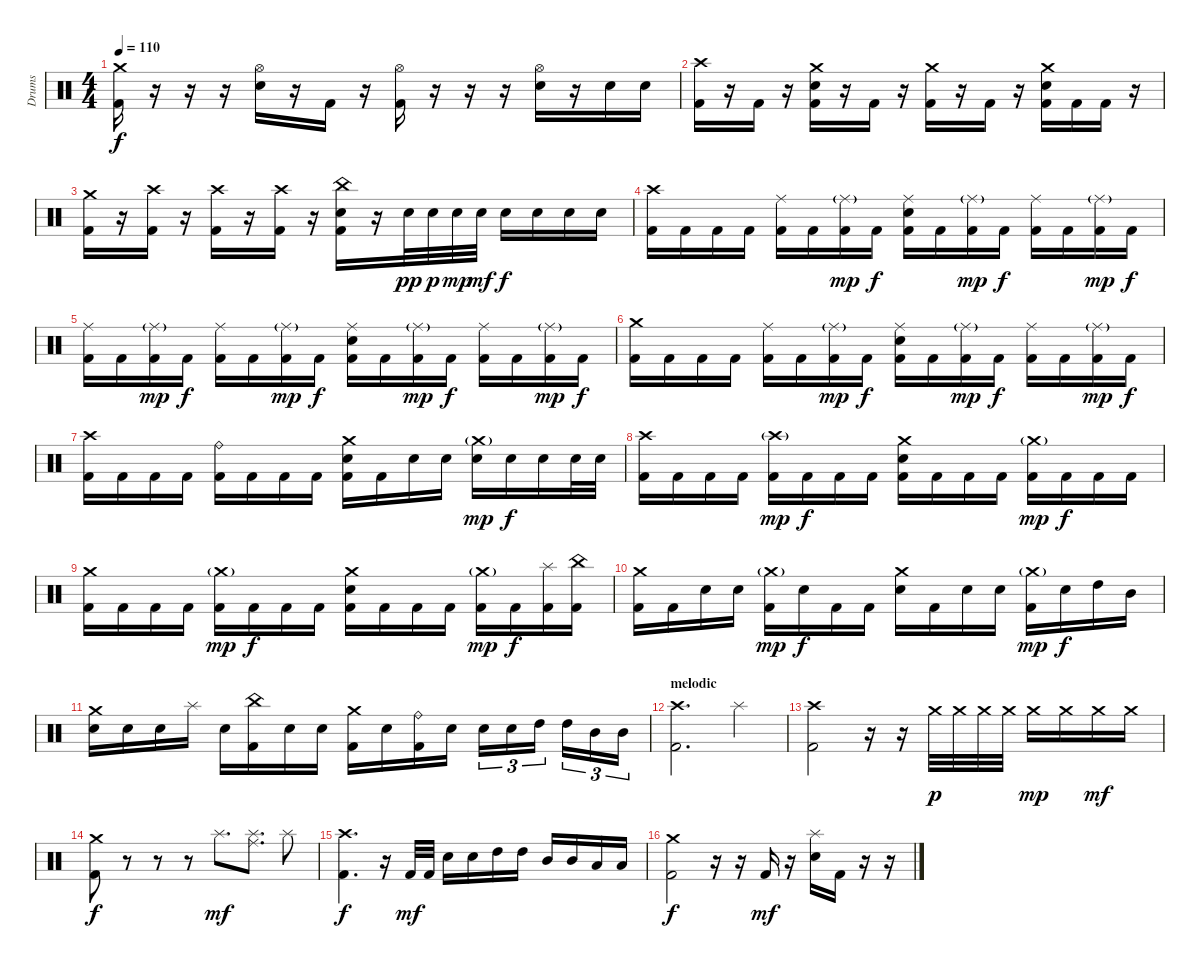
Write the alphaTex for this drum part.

\track ("Drums" "Drums") {instrument percussion}
\staff {score}
\articulation defaults
\ts (4 4)
\tempo 110
\clef neutral
\ks c
("Crash medium (hit)" "Kick (hit) 2").16{dy f} r.16 r.16 r.16 ("Hi-Hat (open)" "Electric Snare (hit)").16 r.16 "Kick (hit) 2".16 r.16 ("Hi-Hat (open)" "Kick (hit) 2").16 r.16 r.16 r.16 ("Hi-Hat (open)" "Electric Snare (hit)").16 r.16 "Electric Snare (hit)".16 "Electric Snare (hit)".16 |
("Crash high (hit)" "Kick (hit) 2").16 r.16 "Kick (hit) 2".16 r.16 ("Crash medium (hit)" "Electric Snare (hit)" "Kick (hit) 2").16 r.16 "Kick (hit) 2".16 r.16 ("Crash medium (hit)" "Kick (hit) 2").16 r.16 "Kick (hit) 2".16 r.16 ("Crash medium (hit)" "Electric Snare (hit)" "Kick (hit) 2").16 "Kick (hit) 2".16 "Kick (hit) 2".16 r.16 |
("Crash medium (hit)" "Kick (hit) 2").16 r.16 ("Crash high (hit)" "Kick (hit) 2").16 r.16 ("Crash high (hit)" "Kick (hit) 2").16 r.16 ("Crash high (hit)" "Kick (hit) 2").16 r.16 ("China (hit)" "Electric Snare (hit)" "Kick (hit) 2").16 r.16 "Electric Snare (hit)".32{dy pp} "Electric Snare (hit)".32{dy p} "Electric Snare (hit)".32{dy mp} "Electric Snare (hit)".32{dy mf} "Electric Snare (hit)".16{dy f} "Electric Snare (hit)".16 "Electric Snare (hit)".16 "Electric Snare (hit)".16 |
("Crash high (hit)" "Kick (hit) 2").16 "Kick (hit) 2".16 "Kick (hit) 2".16 "Kick (hit) 2".16 ("Ride (middle)" "Kick (hit) 2").16 "Kick (hit) 2".16 ("Ride (middle)"{g} "Kick (hit) 2").16{dy mp} "Kick (hit) 2".16{dy f} ("Ride (middle)" "Electric Snare (hit)" "Kick (hit) 2").16 "Kick (hit) 2".16 ("Ride (middle)"{g} "Kick (hit) 2").16{dy mp} "Kick (hit) 2".16{dy f} ("Ride (middle)" "Kick (hit) 2").16 "Kick (hit) 2".16 ("Ride (middle)"{g} "Kick (hit) 2").16{dy mp} "Kick (hit) 2".16{dy f} |
("Ride (middle)" "Kick (hit) 2").16 "Kick (hit) 2".16 ("Ride (middle)"{g} "Kick (hit) 2").16{dy mp} "Kick (hit) 2".16{dy f} ("Ride (middle)" "Kick (hit) 2").16 "Kick (hit) 2".16 ("Ride (middle)"{g} "Kick (hit) 2").16{dy mp} "Kick (hit) 2".16{dy f} ("Ride (middle)" "Electric Snare (hit)" "Kick (hit) 2").16 "Kick (hit) 2".16 ("Ride (middle)"{g} "Kick (hit) 2").16{dy mp} "Kick (hit) 2".16{dy f} ("Ride (middle)" "Kick (hit) 2").16 "Kick (hit) 2".16 ("Ride (middle)"{g} "Kick (hit) 2").16{dy mp} "Kick (hit) 2".16{dy f} |
("Crash medium (hit)" "Kick (hit) 2").16 "Kick (hit) 2".16 "Kick (hit) 2".16 "Kick (hit) 2".16 ("Ride (middle)" "Kick (hit) 2").16 "Kick (hit) 2".16 ("Ride (middle)"{g} "Kick (hit) 2").16{dy mp} "Kick (hit) 2".16{dy f} ("Ride (middle)" "Electric Snare (hit)" "Kick (hit) 2").16 "Kick (hit) 2".16 ("Ride (middle)"{g} "Kick (hit) 2").16{dy mp} "Kick (hit) 2".16{dy f} ("Ride (middle)" "Kick (hit) 2").16 "Kick (hit) 2".16 ("Ride (middle)"{g} "Kick (hit) 2").16{dy mp} "Kick (hit) 2".16{dy f} |
("Crash high (hit)" "Kick (hit) 2").16 "Kick (hit) 2".16 "Kick (hit) 2".16 "Kick (hit) 2".16 ("Ride (bell)" "Kick (hit) 2").16 "Kick (hit) 2".16 "Kick (hit) 2".16 "Kick (hit) 2".16 ("Crash medium (hit)" "Electric Snare (hit)" "Kick (hit) 2").16 "Kick (hit) 2".16 "Electric Snare (hit)".16 "Electric Snare (hit)".16 ("Crash medium (hit)"{g} "Electric Snare (hit)").16{dy mp} "Electric Snare (hit)".16{dy f} "Electric Snare (hit)".16 "Electric Snare (hit)".32 "Electric Snare (hit)".32 |
("Crash high (hit)" "Kick (hit) 2").16 "Kick (hit) 2".16 "Kick (hit) 2".16 "Kick (hit) 2".16 ("Crash high (hit)"{g} "Kick (hit) 2").16{dy mp} "Kick (hit) 2".16{dy f} "Kick (hit) 2".16 "Kick (hit) 2".16 ("Crash medium (hit)" "Electric Snare (hit)" "Kick (hit) 2").16 "Kick (hit) 2".16 "Kick (hit) 2".16 "Kick (hit) 2".16 ("Crash medium (hit)"{g} "Kick (hit) 2").16{dy mp} "Kick (hit) 2".16{dy f} "Kick (hit) 2".16 "Kick (hit) 2".16 |
("Crash medium (hit)" "Kick (hit) 2").16 "Kick (hit) 2".16 "Kick (hit) 2".16 "Kick (hit) 2".16 ("Crash medium (hit)"{g} "Kick (hit) 2").16{dy mp} "Kick (hit) 2".16{dy f} "Kick (hit) 2".16 "Kick (hit) 2".16 ("Crash medium (hit)" "Electric Snare (hit)" "Kick (hit) 2").16 "Kick (hit) 2".16 "Kick (hit) 2".16 "Kick (hit) 2".16 ("Crash medium (hit)"{g} "Kick (hit) 2").16{dy mp} "Kick (hit) 2".16{dy f} ("Splash (hit)" "Kick (hit) 2").16 ("China (hit)" "Kick (hit) 2").16 |
("Crash medium (hit)" "Kick (hit) 2").16 "Kick (hit) 2".16 "Electric Snare (hit)".16 "Electric Snare (hit)".16 ("Crash medium (hit)"{g} "Kick (hit) 2").16{dy mp} "Electric Snare (hit)".16{dy f} "Kick (hit) 2".16 "Kick (hit) 2".16 ("Crash medium (hit)" "Electric Snare (hit)").16 "Kick (hit) 2".16 "Electric Snare (hit)".16 "Electric Snare (hit)".16 ("Crash medium (hit)"{g} "Kick (hit) 2").16{dy mp} "Electric Snare (hit)".16{dy f} "High Tom (hit)".16 "Mid Tom (hit)".16 |
("Crash medium (hit)" "Electric Snare (hit)").16 "Electric Snare (hit)".16 "Electric Snare (hit)".16 "Splash (hit)".16 "Electric Snare (hit)".16 ("China (hit)" "Kick (hit) 2").16 "Electric Snare (hit)".16 "Electric Snare (hit)".16 ("Crash medium (hit)" "Kick (hit) 2").16 "Electric Snare (hit)".16 ("Ride (bell)" "Kick (hit) 2").16 "Electric Snare (hit)".16 "Electric Snare (hit)".16{tu (3 2)} "Electric Snare (hit)".16{tu (3 2)} "High Tom (hit)".16{tu (3 2) beam splitsecondary} "High Tom (hit)".16{tu (3 2)} "Mid Tom (hit)".16{tu (3 2)} "Mid Tom (hit)".16{tu (3 2)} |
\section ("" "melodic")
("Crash high (hit)" "Kick (hit) 2").2{d} "Splash (hit)".4 |
("Crash high (hit)" "Kick (hit) 2").2 r.16 r.16 "Crash medium (hit)".32{dy p} "Crash medium (hit)".32 "Crash medium (hit)".32 "Crash medium (hit)".32 "Crash medium (hit)".16{dy mp} "Crash medium (hit)".16 "Crash medium (hit)".16{dy mf} "Crash medium (hit)".16 |
("Crash medium (hit)" "Kick (hit) 2").8{dy f} r.8 r.8 r.8 "Splash (hit)".8{d dy mf} ("Splash (hit)" "Ride (middle)").8{d} "Splash (hit)".8 |
("Crash high (hit)" "Kick (hit) 2").4{d dy f} r.16 "Kick (hit) 2".32{dy mf} "Kick (hit) 2".32 "Electric Snare (hit)".16 "Electric Snare (hit)".16 "High Tom (hit)".16 "High Tom (hit)".16 "Mid Tom (hit)".16 "Mid Tom (hit)".16 "Low Tom (hit)".16 "Low Tom (hit)".16 |
("Crash medium (hit)" "Kick (hit) 2").2{dy f} r.16 r.16 "Kick (hit) 2".16{dy mf} r.16 ("Splash (hit)" "Electric Snare (hit)").16 "Kick (hit) 2".16 r.16 r.16
